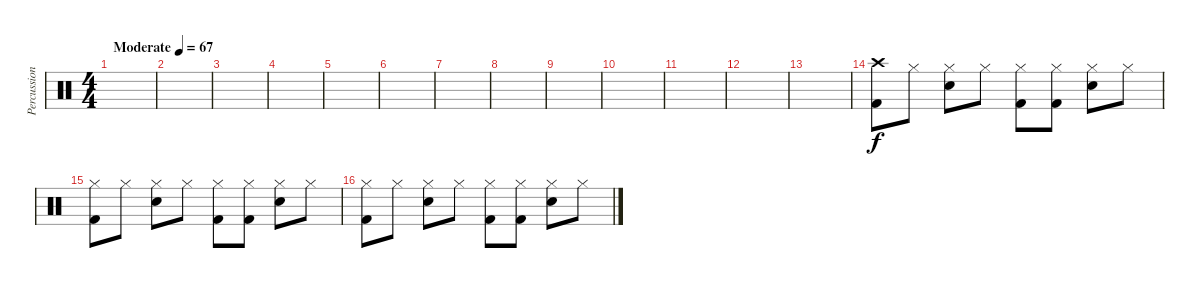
\track ("Percussion" "Percussion") {instrument percussion}
\staff {score}
\articulation defaults
\ts (4 4)
\tempo (67 "Moderate")
\clef neutral
\ks c
|
|
|
|
|
|
|
|
|
|
|
|
|
("Crash high (hit)" "Kick (hit) 2").8 "Hi-Hat (closed)".8 ("Hi-Hat (closed)" "Electric Snare (hit)").8 "Hi-Hat (closed)".8 ("Hi-Hat (closed)" "Kick (hit) 2").8 ("Hi-Hat (closed)" "Kick (hit) 2").8 ("Hi-Hat (closed)" "Electric Snare (hit)").8 "Hi-Hat (closed)".8 |
("Hi-Hat (closed)" "Kick (hit) 2").8 "Hi-Hat (closed)".8 ("Hi-Hat (closed)" "Electric Snare (hit)").8 "Hi-Hat (closed)".8 ("Hi-Hat (closed)" "Kick (hit) 2").8 ("Hi-Hat (closed)" "Kick (hit) 2").8 ("Hi-Hat (closed)" "Electric Snare (hit)").8 "Hi-Hat (closed)".8 |
("Hi-Hat (closed)" "Kick (hit) 2").8 "Hi-Hat (closed)".8 ("Hi-Hat (closed)" "Electric Snare (hit)").8 "Hi-Hat (closed)".8 ("Hi-Hat (closed)" "Kick (hit) 2").8 ("Hi-Hat (closed)" "Kick (hit) 2").8 ("Hi-Hat (closed)" "Electric Snare (hit)").8 "Hi-Hat (closed)".8
